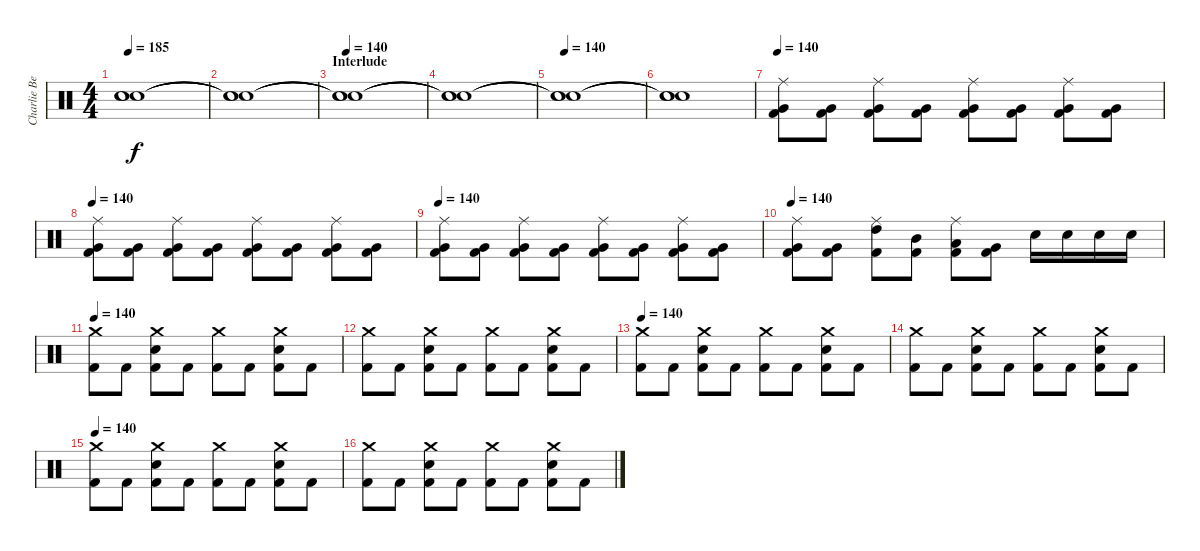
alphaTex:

\track ("Charlie Benante" "Charlie Be") {instrument percussion}
\staff {score}
\articulation defaults
\ts (4 4)
\tempo 185
\clef neutral
\ks c
("Snare (hit)"{t} "Snare (hit)"{t} "Snare (hit)"{t}).1{dy f} |
("Snare (hit)"{t} "Snare (hit)"{t} "Snare (hit)"{t}).1 |
\section ("" "Interlude")
\tempo 140
("Snare (hit)"{t} "Snare (hit)"{t} "Snare (hit)"{t}).1 |
("Snare (hit)"{t} "Snare (hit)"{t} "Snare (hit)"{t}).1 |
\tempo 140
("Snare (hit)"{t} "Snare (hit)"{t} "Snare (hit)"{t}).1 |
("Snare (hit)"{t} "Snare (hit)"{t} "Snare (hit)"{t}).1 |
\tempo 140
("Ride (middle)" "Very Low Tom (hit)" "Kick (hit) 2").8 ("Very Low Tom (hit)" "Kick (hit) 2").8 ("Ride (middle)" "Very Low Tom (hit)" "Kick (hit) 2").8 ("Very Low Tom (hit)" "Kick (hit) 2").8 ("Ride (middle)" "Very Low Tom (hit)" "Kick (hit) 2").8 ("Very Low Tom (hit)" "Kick (hit) 2").8 ("Ride (middle)" "Very Low Tom (hit)" "Kick (hit) 2").8 ("Very Low Tom (hit)" "Kick (hit) 2").8 |
\tempo 140
("Ride (middle)" "Very Low Tom (hit)" "Kick (hit) 2").8 ("Very Low Tom (hit)" "Kick (hit) 2").8 ("Ride (middle)" "Very Low Tom (hit)" "Kick (hit) 2").8 ("Very Low Tom (hit)" "Kick (hit) 2").8 ("Ride (middle)" "Very Low Tom (hit)" "Kick (hit) 2").8 ("Very Low Tom (hit)" "Kick (hit) 2").8 ("Ride (middle)" "Very Low Tom (hit)" "Kick (hit) 2").8 ("Very Low Tom (hit)" "Kick (hit) 2").8 |
\tempo 140
("Ride (middle)" "Very Low Tom (hit)" "Kick (hit) 2").8 ("Very Low Tom (hit)" "Kick (hit) 2").8 ("Ride (middle)" "Very Low Tom (hit)" "Kick (hit) 2").8 ("Very Low Tom (hit)" "Kick (hit) 2").8 ("Ride (middle)" "Very Low Tom (hit)" "Kick (hit) 2").8 ("Very Low Tom (hit)" "Kick (hit) 2").8 ("Ride (middle)" "Very Low Tom (hit)" "Kick (hit) 2").8 ("Very Low Tom (hit)" "Kick (hit) 2").8 |
\tempo 140
("Ride (middle)" "Very Low Tom (hit)" "Kick (hit) 2").8 ("Very Low Tom (hit)" "Kick (hit) 2").8 ("Ride (middle)" "High Tom (hit)" "Kick (hit) 2").8 ("Mid Tom (hit)" "Kick (hit) 2").8 ("Ride (middle)" "Low Tom (hit)" "Kick (hit) 2").8 ("Very Low Tom (hit)" "Kick (hit) 2").8 "Snare (hit) 2".16 "Snare (hit) 2".16 "Snare (hit) 2".16 "Snare (hit) 2".16 |
\tempo 140
("Crash medium (hit)" "Kick (hit) 2").8 "Kick (hit) 2".8 ("Crash medium (hit)" "Snare (hit) 2" "Kick (hit) 2").8 "Kick (hit) 2".8 ("Crash medium (hit)" "Kick (hit) 2").8 "Kick (hit) 2".8 ("Crash medium (hit)" "Snare (hit) 2" "Kick (hit) 2").8 "Kick (hit) 2".8 |
("Crash medium (hit)" "Kick (hit) 2").8 "Kick (hit) 2".8 ("Crash medium (hit)" "Snare (hit) 2" "Kick (hit) 2").8 "Kick (hit) 2".8 ("Crash medium (hit)" "Kick (hit) 2").8 "Kick (hit) 2".8 ("Crash medium (hit)" "Snare (hit) 2" "Kick (hit) 2").8 "Kick (hit) 2".8 |
\tempo 140
("Crash medium (hit)" "Kick (hit) 2").8 "Kick (hit) 2".8 ("Crash medium (hit)" "Snare (hit) 2" "Kick (hit) 2").8 "Kick (hit) 2".8 ("Crash medium (hit)" "Kick (hit) 2").8 "Kick (hit) 2".8 ("Crash medium (hit)" "Snare (hit) 2" "Kick (hit) 2").8 "Kick (hit) 2".8 |
("Crash medium (hit)" "Kick (hit) 2").8 "Kick (hit) 2".8 ("Crash medium (hit)" "Snare (hit) 2" "Kick (hit) 2").8 "Kick (hit) 2".8 ("Crash medium (hit)" "Kick (hit) 2").8 "Kick (hit) 2".8 ("Crash medium (hit)" "Snare (hit) 2" "Kick (hit) 2").8 "Kick (hit) 2".8 |
\tempo 140
("Crash medium (hit)" "Kick (hit) 2").8 "Kick (hit) 2".8 ("Crash medium (hit)" "Snare (hit) 2" "Kick (hit) 2").8 "Kick (hit) 2".8 ("Crash medium (hit)" "Kick (hit) 2").8 "Kick (hit) 2".8 ("Crash medium (hit)" "Snare (hit) 2" "Kick (hit) 2").8 "Kick (hit) 2".8 |
("Crash medium (hit)" "Kick (hit) 2").8 "Kick (hit) 2".8 ("Crash medium (hit)" "Snare (hit) 2" "Kick (hit) 2").8 "Kick (hit) 2".8 ("Crash medium (hit)" "Kick (hit) 2").8 "Kick (hit) 2".8 ("Crash medium (hit)" "Snare (hit) 2" "Kick (hit) 2").8 "Kick (hit) 2".8
